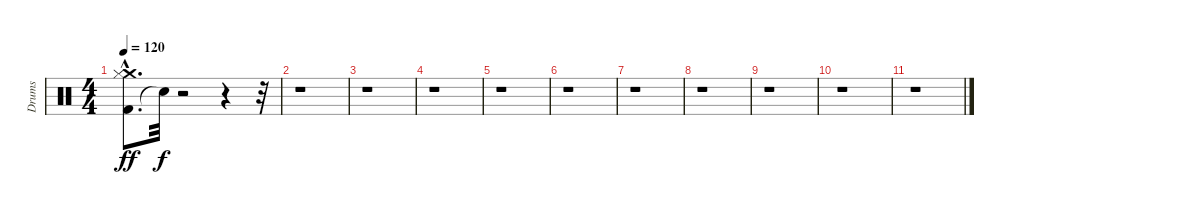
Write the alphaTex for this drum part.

\track ("Drums" "Drums") {instrument percussion}
\staff {score}
\articulation defaults
\ts (4 4)
\tempo 120
\clef neutral
\ks c
("Kick (hit) 2"{hac} "Crash medium (hit)" "Hi-Hat (closed)").8{d dy ff} "Snare (hit)"{t}.32{dy f} r.2 r.4 r.32 |
r.1 |
r.1 |
r.1 |
r.1 |
r.1 |
r.1 |
r.1 |
r.1 |
r.1 |
r.1
